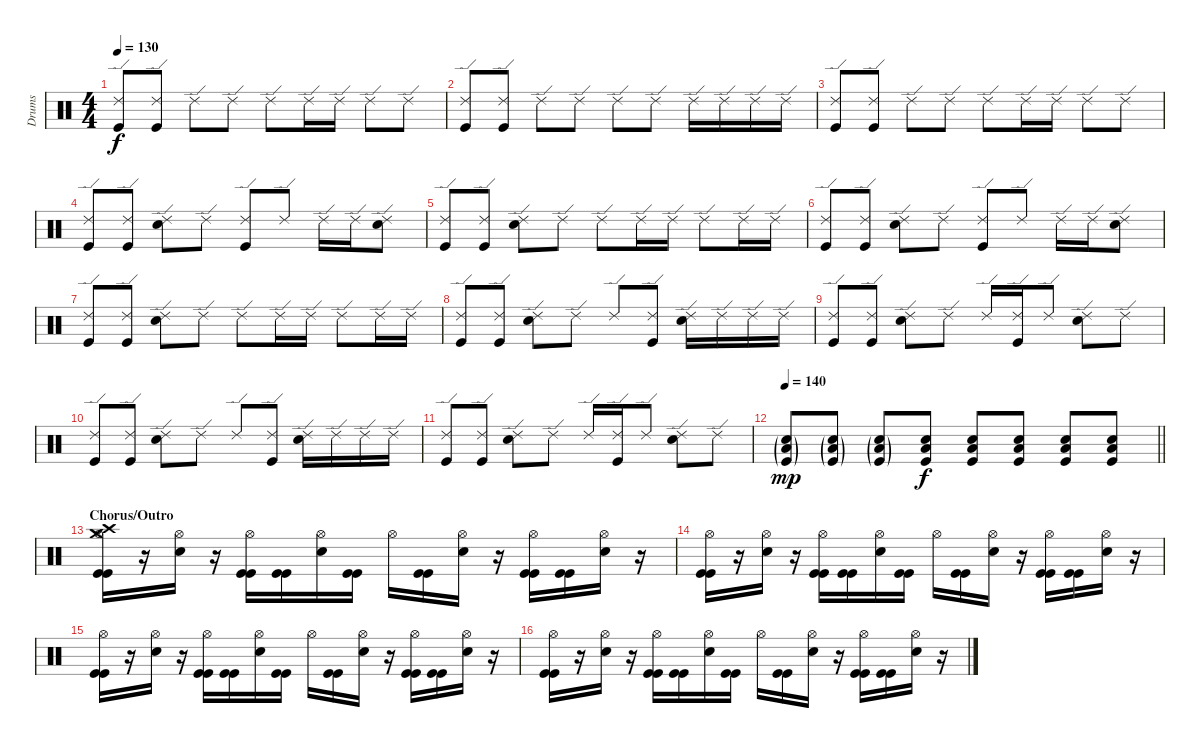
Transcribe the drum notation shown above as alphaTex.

\track ("Drums" "Drums") {instrument percussion}
\staff {score}
\articulation defaults
\ts (4 4)
\tempo 130
\clef neutral
\ks c
("Ride (edge) 2" "Kick (hit)").8{dy f} ("Ride (edge) 2" "Kick (hit)").8 "Ride (edge) 2".8 "Ride (edge) 2".8 "Ride (edge) 2".8 "Ride (edge) 2".16 "Ride (edge) 2".16 "Ride (edge) 2".8 "Ride (edge) 2".8 |
("Ride (edge) 2" "Kick (hit)").8 ("Ride (edge) 2" "Kick (hit)").8 "Ride (edge) 2".8 "Ride (edge) 2".8 "Ride (edge) 2".8 "Ride (edge) 2".8 "Ride (edge) 2".16 "Ride (edge) 2".16 "Ride (edge) 2".16 "Ride (edge) 2".16 |
("Ride (edge) 2" "Kick (hit)").8 ("Ride (edge) 2" "Kick (hit)").8 "Ride (edge) 2".8 "Ride (edge) 2".8 "Ride (edge) 2".8 "Ride (edge) 2".16 "Ride (edge) 2".16 "Ride (edge) 2".8 "Ride (edge) 2".8 |
("Ride (edge) 2" "Kick (hit)").8 ("Ride (edge) 2" "Kick (hit)").8 ("Ride (edge) 2" "Snare (hit) 2").8 "Ride (edge) 2".8 ("Ride (edge) 2" "Kick (hit)").8 "Ride (edge) 2".8 "Ride (edge) 2".16 "Ride (edge) 2".16 ("Ride (edge) 2" "Snare (hit) 2").8 |
("Ride (edge) 2" "Kick (hit)").8 ("Ride (edge) 2" "Kick (hit)").8 ("Ride (edge) 2" "Snare (hit) 2").8 "Ride (edge) 2".8 "Ride (edge) 2".8 "Ride (edge) 2".16 "Ride (edge) 2".16 "Ride (edge) 2".8 "Ride (edge) 2".16 "Ride (edge) 2".16 |
("Ride (edge) 2" "Kick (hit)").8 ("Ride (edge) 2" "Kick (hit)").8 ("Ride (edge) 2" "Snare (hit) 2").8 "Ride (edge) 2".8 ("Ride (edge) 2" "Kick (hit)").8 "Ride (edge) 2".8 "Ride (edge) 2".16 "Ride (edge) 2".16 ("Ride (edge) 2" "Snare (hit) 2").8 |
("Ride (edge) 2" "Kick (hit)").8 ("Ride (edge) 2" "Kick (hit)").8 ("Ride (edge) 2" "Snare (hit) 2").8 "Ride (edge) 2".8 "Ride (edge) 2".8 "Ride (edge) 2".16 "Ride (edge) 2".16 "Ride (edge) 2".8 "Ride (edge) 2".16 "Ride (edge) 2".16 |
("Ride (edge) 2" "Kick (hit)").8 ("Ride (edge) 2" "Kick (hit)").8 ("Ride (edge) 2" "Snare (hit) 2").8 "Ride (edge) 2".8 "Ride (edge) 2".8 ("Ride (edge) 2" "Kick (hit)").8 ("Ride (edge) 2" "Snare (hit) 2").16 "Ride (edge) 2".16 "Ride (edge) 2".16 "Ride (edge) 2".16 |
("Ride (edge) 2" "Kick (hit)").8 ("Ride (edge) 2" "Kick (hit)").8 ("Ride (edge) 2" "Snare (hit) 2").8 "Ride (edge) 2".8 "Ride (edge) 2".16 ("Ride (edge) 2" "Kick (hit)").16 "Ride (edge) 2".8 ("Ride (edge) 2" "Snare (hit) 2").8 "Ride (edge) 2".8 |
("Ride (edge) 2" "Kick (hit)").8 ("Ride (edge) 2" "Kick (hit)").8 ("Ride (edge) 2" "Snare (hit) 2").8 "Ride (edge) 2".8 "Ride (edge) 2".8 ("Ride (edge) 2" "Kick (hit)").8 ("Ride (edge) 2" "Snare (hit) 2").16 "Ride (edge) 2".16 "Ride (edge) 2".16 "Ride (edge) 2".16 |
("Ride (edge) 2" "Kick (hit)").8 ("Ride (edge) 2" "Kick (hit)").8 ("Ride (edge) 2" "Snare (hit) 2").8 "Ride (edge) 2".8 "Ride (edge) 2".16 ("Ride (edge) 2" "Kick (hit)").16 "Ride (edge) 2".8 ("Ride (edge) 2" "Snare (hit) 2").8 "Ride (edge) 2".8 |
\tempo 140
\barLineRight lightlight
("Low Floor Tom (hit)"{g} "Snare (hit) 2"{g} "Kick (hit)"{g}).8{dy mp} ("Low Floor Tom (hit)"{g} "Snare (hit) 2"{g} "Kick (hit)"{g}).8 ("Low Floor Tom (hit)"{g} "Snare (hit) 2"{g} "Kick (hit)"{g}).8 ("Low Floor Tom (hit)" "Snare (hit) 2" "Kick (hit)").8{dy f} ("Low Floor Tom (hit)" "Snare (hit) 2" "Kick (hit)").8 ("Low Floor Tom (hit)" "Snare (hit) 2" "Kick (hit)").8 ("Low Floor Tom (hit)" "Snare (hit) 2" "Kick (hit)").8 ("Low Floor Tom (hit)" "Snare (hit) 2" "Kick (hit)").8 |
\section ("" "Chorus/Outro")
("Crash medium (hit)" "Crash high (hit)" "Hi-Hat (open)" "Kick (hit)" "Kick (hit)").16 r.16 ("Hi-Hat (open)" "Snare (hit) 2").16 r.16 ("Hi-Hat (open)" "Kick (hit)" "Kick (hit)").16 ("Kick (hit)" "Kick (hit)").16 ("Hi-Hat (open)" "Snare (hit) 2").16 ("Kick (hit)" "Kick (hit)").16 "Hi-Hat (open)".16 ("Kick (hit)" "Kick (hit)").16 ("Hi-Hat (open)" "Snare (hit) 2").16 r.16 ("Hi-Hat (open)" "Kick (hit)" "Kick (hit)").16 ("Kick (hit)" "Kick (hit)").16 ("Hi-Hat (open)" "Snare (hit) 2").16 r.16 |
("Hi-Hat (open)" "Kick (hit)" "Kick (hit)").16 r.16 ("Hi-Hat (open)" "Snare (hit) 2").16 r.16 ("Hi-Hat (open)" "Kick (hit)" "Kick (hit)").16 ("Kick (hit)" "Kick (hit)").16 ("Hi-Hat (open)" "Snare (hit) 2").16 ("Kick (hit)" "Kick (hit)").16 "Hi-Hat (open)".16 ("Kick (hit)" "Kick (hit)").16 ("Hi-Hat (open)" "Snare (hit) 2").16 r.16 ("Hi-Hat (open)" "Kick (hit)" "Kick (hit)").16 ("Kick (hit)" "Kick (hit)").16 ("Hi-Hat (open)" "Snare (hit) 2").16 r.16 |
("Hi-Hat (open)" "Kick (hit)" "Kick (hit)").16 r.16 ("Hi-Hat (open)" "Snare (hit) 2").16 r.16 ("Hi-Hat (open)" "Kick (hit)" "Kick (hit)").16 ("Kick (hit)" "Kick (hit)").16 ("Hi-Hat (open)" "Snare (hit) 2").16 ("Kick (hit)" "Kick (hit)").16 "Hi-Hat (open)".16 ("Kick (hit)" "Kick (hit)").16 ("Hi-Hat (open)" "Snare (hit) 2").16 r.16 ("Hi-Hat (open)" "Kick (hit)" "Kick (hit)").16 ("Kick (hit)" "Kick (hit)").16 ("Hi-Hat (open)" "Snare (hit) 2").16 r.16 |
("Hi-Hat (open)" "Kick (hit)" "Kick (hit)").16 r.16 ("Hi-Hat (open)" "Snare (hit) 2").16 r.16 ("Hi-Hat (open)" "Kick (hit)" "Kick (hit)").16 ("Kick (hit)" "Kick (hit)").16 ("Hi-Hat (open)" "Snare (hit) 2").16 ("Kick (hit)" "Kick (hit)").16 "Hi-Hat (open)".16 ("Kick (hit)" "Kick (hit)").16 ("Hi-Hat (open)" "Snare (hit) 2").16 r.16 ("Hi-Hat (open)" "Kick (hit)" "Kick (hit)").16 ("Kick (hit)" "Kick (hit)").16 ("Hi-Hat (open)" "Snare (hit) 2").16 r.16
